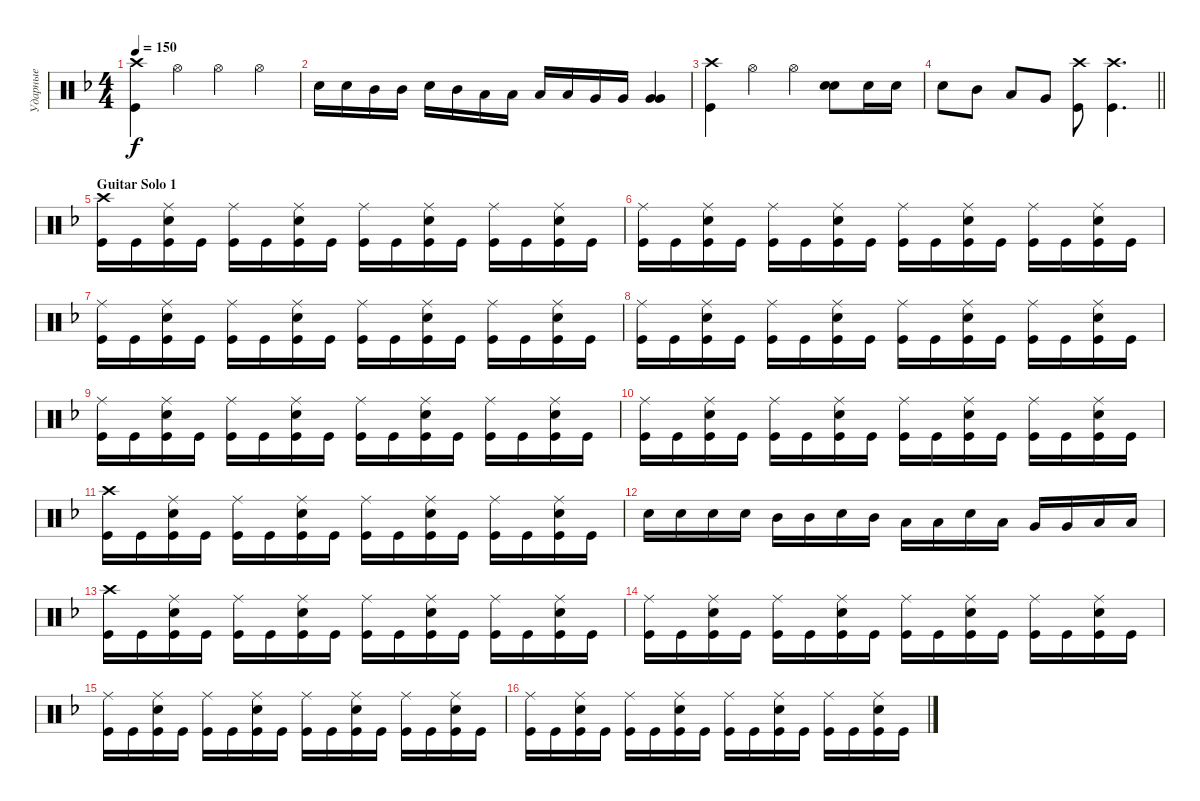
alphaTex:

\track ("Ударные" "Ударные") {instrument percussion}
\staff {score}
\articulation defaults
\ts (4 4)
\tempo 150
\clef neutral
\ks dminor
("Kick (hit)" "Crash high (hit)").4{dy f} "Hi-Hat (open)".4 "Hi-Hat (open)".4 "Hi-Hat (open)".4 |
"Snare (hit) 2".16 "Snare (hit) 2".16 "Mid Tom (hit)".16 "Mid Tom (hit)".16 "Snare (hit) 2".16 "Mid Tom (hit)".16 "Low Tom (hit)".16 "Low Tom (hit)".16 "Low Tom (hit)".16 "Low Tom (hit)".16 "Very Low Tom (hit)".16 "Very Low Tom (hit)".16 ("Very Low Tom (hit)" "Very Low Tom (hit)").4{bd 480} |
("Kick (hit)" "Crash high (hit)").4 "Hi-Hat (open)".4 "Hi-Hat (open)".4 ("Snare (hit) 2" "Snare (hit) 2").8{bd 480} "Snare (hit) 2".16 "Snare (hit) 2".16 |
\barLineRight lightlight "Snare (hit) 2".8 "Mid Tom (hit)".8 "Low Tom (hit)".8 "Very Low Tom (hit)".8
("Kick (hit)" "Crash high (hit)").8 ("Kick (hit)" "Crash high (hit)").4{d} |
\section ("" "Guitar Solo 1")
("Kick (hit)" "Crash high (hit)").16 "Kick (hit)".16 ("Kick (hit)" "Snare (hit) 2" "Ride (middle)").16 "Kick (hit)".16 ("Kick (hit)" "Ride (middle)").16 "Kick (hit)".16 ("Kick (hit)" "Snare (hit) 2" "Ride (middle)").16 "Kick (hit)".16 ("Kick (hit)" "Ride (middle)").16 "Kick (hit)".16 ("Snare (hit) 2" "Kick (hit)" "Ride (middle)").16 "Kick (hit)".16 ("Kick (hit)" "Ride (middle)").16 "Kick (hit)".16 ("Kick (hit)" "Snare (hit) 2" "Ride (middle)").16 "Kick (hit)".16 |
("Kick (hit)" "Ride (middle)").16 "Kick (hit)".16 ("Kick (hit)" "Snare (hit) 2" "Ride (middle)").16 "Kick (hit)".16 ("Kick (hit)" "Ride (middle)").16 "Kick (hit)".16 ("Kick (hit)" "Snare (hit) 2" "Ride (middle)").16 "Kick (hit)".16 ("Kick (hit)" "Ride (middle)").16 "Kick (hit)".16 ("Snare (hit) 2" "Kick (hit)" "Ride (middle)").16 "Kick (hit)".16 ("Kick (hit)" "Ride (middle)").16 "Kick (hit)".16 ("Kick (hit)" "Snare (hit) 2" "Ride (middle)").16 "Kick (hit)".16 |
("Kick (hit)" "Ride (middle)").16 "Kick (hit)".16 ("Kick (hit)" "Snare (hit) 2" "Ride (middle)").16 "Kick (hit)".16 ("Kick (hit)" "Ride (middle)").16 "Kick (hit)".16 ("Kick (hit)" "Snare (hit) 2" "Ride (middle)").16 "Kick (hit)".16 ("Kick (hit)" "Ride (middle)").16 "Kick (hit)".16 ("Snare (hit) 2" "Kick (hit)" "Ride (middle)").16 "Kick (hit)".16 ("Kick (hit)" "Ride (middle)").16 "Kick (hit)".16 ("Kick (hit)" "Snare (hit) 2" "Ride (middle)").16 "Kick (hit)".16 |
("Kick (hit)" "Ride (middle)").16 "Kick (hit)".16 ("Kick (hit)" "Snare (hit) 2" "Ride (middle)").16 "Kick (hit)".16 ("Kick (hit)" "Ride (middle)").16 "Kick (hit)".16 ("Kick (hit)" "Snare (hit) 2" "Ride (middle)").16 "Kick (hit)".16 ("Kick (hit)" "Ride (middle)").16 "Kick (hit)".16 ("Snare (hit) 2" "Kick (hit)" "Ride (middle)").16 "Kick (hit)".16 ("Kick (hit)" "Ride (middle)").16 "Kick (hit)".16 ("Kick (hit)" "Snare (hit) 2" "Ride (middle)").16 "Kick (hit)".16 |
("Kick (hit)" "Ride (middle)").16 "Kick (hit)".16 ("Kick (hit)" "Snare (hit) 2" "Ride (middle)").16 "Kick (hit)".16 ("Kick (hit)" "Ride (middle)").16 "Kick (hit)".16 ("Kick (hit)" "Snare (hit) 2" "Ride (middle)").16 "Kick (hit)".16 ("Kick (hit)" "Ride (middle)").16 "Kick (hit)".16 ("Snare (hit) 2" "Kick (hit)" "Ride (middle)").16 "Kick (hit)".16 ("Kick (hit)" "Ride (middle)").16 "Kick (hit)".16 ("Kick (hit)" "Snare (hit) 2" "Ride (middle)").16 "Kick (hit)".16 |
("Kick (hit)" "Ride (middle)").16 "Kick (hit)".16 ("Kick (hit)" "Snare (hit) 2" "Ride (middle)").16 "Kick (hit)".16 ("Kick (hit)" "Ride (middle)").16 "Kick (hit)".16 ("Kick (hit)" "Snare (hit) 2" "Ride (middle)").16 "Kick (hit)".16 ("Kick (hit)" "Ride (middle)").16 "Kick (hit)".16 ("Snare (hit) 2" "Kick (hit)" "Ride (middle)").16 "Kick (hit)".16 ("Kick (hit)" "Ride (middle)").16 "Kick (hit)".16 ("Kick (hit)" "Snare (hit) 2" "Ride (middle)").16 "Kick (hit)".16 |
("Kick (hit)" "Crash high (hit)").16 "Kick (hit)".16 ("Kick (hit)" "Snare (hit) 2" "Ride (middle)").16 "Kick (hit)".16 ("Kick (hit)" "Ride (middle)").16 "Kick (hit)".16 ("Kick (hit)" "Snare (hit) 2" "Ride (middle)").16 "Kick (hit)".16 ("Kick (hit)" "Ride (middle)").16 "Kick (hit)".16 ("Snare (hit) 2" "Kick (hit)" "Ride (middle)").16 "Kick (hit)".16 ("Kick (hit)" "Ride (middle)").16 "Kick (hit)".16 ("Kick (hit)" "Snare (hit) 2" "Ride (middle)").16 "Kick (hit)".16 |
"Snare (hit) 2".16 "Snare (hit) 2".16 "Snare (hit) 2".16 "Snare (hit) 2".16 "Mid Tom (hit)".16 "Mid Tom (hit)".16 "Snare (hit) 2".16 "Mid Tom (hit)".16 "Low Tom (hit)".16 "Low Tom (hit)".16 "Snare (hit) 2".16 "Low Tom (hit)".16 "Very Low Tom (hit)".16 "Very Low Tom (hit)".16 "Low Floor Tom (hit)".16 "Low Floor Tom (hit)".16 |
("Kick (hit)" "Crash high (hit)").16 "Kick (hit)".16 ("Kick (hit)" "Snare (hit) 2" "Ride (middle)").16 "Kick (hit)".16 ("Kick (hit)" "Ride (middle)").16 "Kick (hit)".16 ("Kick (hit)" "Snare (hit) 2" "Ride (middle)").16 "Kick (hit)".16 ("Kick (hit)" "Ride (middle)").16 "Kick (hit)".16 ("Snare (hit) 2" "Kick (hit)" "Ride (middle)").16 "Kick (hit)".16 ("Kick (hit)" "Ride (middle)").16 "Kick (hit)".16 ("Kick (hit)" "Snare (hit) 2" "Ride (middle)").16 "Kick (hit)".16 |
("Kick (hit)" "Ride (middle)").16 "Kick (hit)".16 ("Kick (hit)" "Snare (hit) 2" "Ride (middle)").16 "Kick (hit)".16 ("Kick (hit)" "Ride (middle)").16 "Kick (hit)".16 ("Kick (hit)" "Snare (hit) 2" "Ride (middle)").16 "Kick (hit)".16 ("Kick (hit)" "Ride (middle)").16 "Kick (hit)".16 ("Snare (hit) 2" "Kick (hit)" "Ride (middle)").16 "Kick (hit)".16 ("Kick (hit)" "Ride (middle)").16 "Kick (hit)".16 ("Kick (hit)" "Snare (hit) 2" "Ride (middle)").16 "Kick (hit)".16 |
("Kick (hit)" "Ride (middle)").16 "Kick (hit)".16 ("Kick (hit)" "Snare (hit) 2" "Ride (middle)").16 "Kick (hit)".16 ("Kick (hit)" "Ride (middle)").16 "Kick (hit)".16 ("Kick (hit)" "Snare (hit) 2" "Ride (middle)").16 "Kick (hit)".16 ("Kick (hit)" "Ride (middle)").16 "Kick (hit)".16 ("Snare (hit) 2" "Kick (hit)" "Ride (middle)").16 "Kick (hit)".16 ("Kick (hit)" "Ride (middle)").16 "Kick (hit)".16 ("Kick (hit)" "Snare (hit) 2" "Ride (middle)").16 "Kick (hit)".16 |
("Kick (hit)" "Ride (middle)").16 "Kick (hit)".16 ("Kick (hit)" "Snare (hit) 2" "Ride (middle)").16 "Kick (hit)".16 ("Kick (hit)" "Ride (middle)").16 "Kick (hit)".16 ("Kick (hit)" "Snare (hit) 2" "Ride (middle)").16 "Kick (hit)".16 ("Kick (hit)" "Ride (middle)").16 "Kick (hit)".16 ("Snare (hit) 2" "Kick (hit)" "Ride (middle)").16 "Kick (hit)".16 ("Kick (hit)" "Ride (middle)").16 "Kick (hit)".16 ("Kick (hit)" "Snare (hit) 2" "Ride (middle)").16 "Kick (hit)".16
